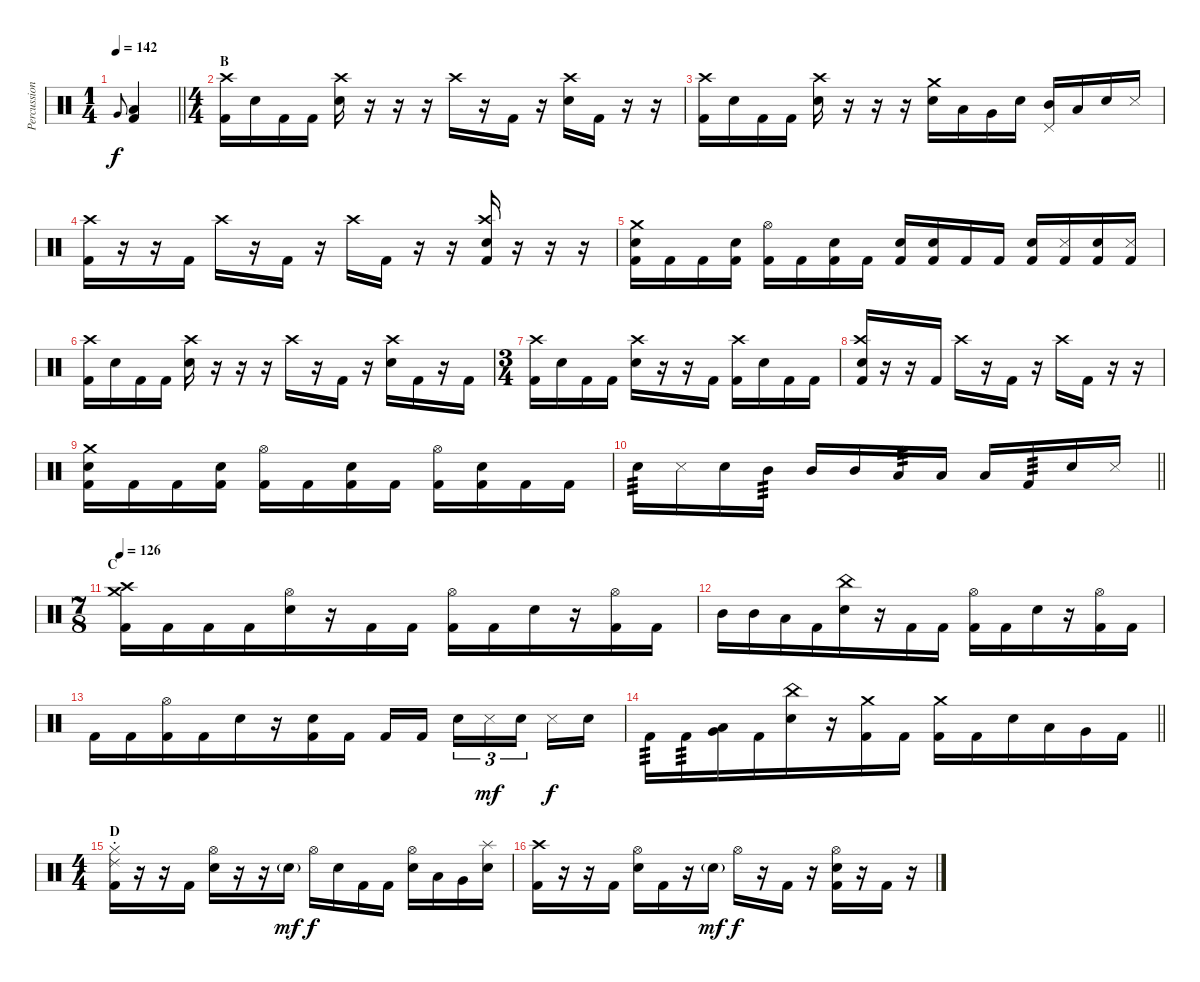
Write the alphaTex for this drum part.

\track ("Percussion" "Percussion") {instrument percussion}
\staff {score}
\articulation defaults
\ts (1 4)
\tempo 142
\clef neutral
\barLineRight lightlight
\ks c "Very Low Tom (hit)".8{gr onbeat dy f}
("Low Floor Tom (hit)" "Kick (hit) 2").4 |
\ts (4 4)
\section ("" "B")
("Crash high (hit)" "Kick (hit) 2").16 "Snare (hit) 2".16 "Kick (hit) 2".16 "Kick (hit) 2".16 ("Crash high (hit)" "Snare (hit) 2").16 r.16 r.16 r.16 "Crash high (hit)".16 r.16 "Kick (hit) 2".16 r.16 ("Crash high (hit)" "Snare (hit) 2").16 "Kick (hit) 2".16 r.16 r.16 |
("Crash high (hit)" "Kick (hit) 2").16 "Snare (hit) 2".16 "Kick (hit) 2".16 "Kick (hit) 2".16 ("Crash high (hit)" "Snare (hit) 2").16 r.16 r.16 r.16 ("Crash medium (hit)" "Snare (hit) 2").16 "Low Tom (hit)".16 "Very Low Tom (hit)".16 "Snare (hit) 2".16 ("Pedal Hi-Hat (hit)" "Mid Tom (hit)").16 "Low Tom (hit)".16 "Snare (hit) 2".16 "Metronome (hit)".16 |
("Crash high (hit)" "Kick (hit) 2").16 r.16 r.16 "Kick (hit) 2".16 "Crash high (hit)".16 r.16 "Kick (hit) 2".16 r.16 "Crash high (hit)".16 "Kick (hit) 2".16 r.16 r.16 ("Crash high (hit)" "Snare (hit) 2" "Kick (hit) 2").16 r.16 r.16 r.16 |
("Crash medium (hit)" "Snare (hit) 2" "Kick (hit) 2").16 "Kick (hit) 2".16 "Kick (hit) 2".16 ("Snare (hit) 2" "Kick (hit) 2").16 ("Hi-Hat (open)" "Kick (hit) 2").16 "Kick (hit) 2".16 ("Snare (hit) 2" "Kick (hit) 2").16 "Kick (hit) 2".16 ("Snare (hit)" "Kick (hit) 2").16 ("Snare (hit) 2" "Kick (hit) 2").16 "Kick (hit) 2".16 "Kick (hit) 2".16 ("Snare (hit) 2" "Kick (hit) 2").16 ("Metronome (hit)" "Kick (hit) 2").16 ("Snare (hit) 2" "Kick (hit) 2").16 ("Metronome (hit)" "Kick (hit) 2").16 |
("Crash high (hit)" "Kick (hit) 2").16 "Snare (hit) 2".16 "Kick (hit) 2".16 "Kick (hit) 2".16 ("Crash high (hit)" "Snare (hit) 2").16 r.16 r.16 r.16 "Crash high (hit)".16 r.16 "Kick (hit) 2".16 r.16 ("Crash high (hit)" "Snare (hit) 2").16 "Kick (hit) 2".16 r.16 "Kick (hit) 2".16 |
\ts (3 4)
("Crash high (hit)" "Kick (hit) 2").16 "Snare (hit) 2".16 "Kick (hit) 2".16 "Kick (hit) 2".16 ("Crash high (hit)" "Snare (hit) 2").16 r.16 r.16 "Kick (hit) 2".16 ("Crash high (hit)" "Kick (hit) 2").16 "Snare (hit) 2".16 "Kick (hit) 2".16 "Kick (hit) 2".16 |
("Crash high (hit)" "Snare (hit) 2" "Kick (hit) 2").16 r.16 r.16 "Kick (hit) 2".16 "Crash high (hit)".16 r.16 "Kick (hit) 2".16 r.16 "Crash high (hit)".16 "Kick (hit) 2".16 r.16 r.16 |
("Crash medium (hit)" "Snare (hit) 2" "Kick (hit) 2").16 "Kick (hit) 2".16 "Kick (hit) 2".16 ("Snare (hit) 2" "Kick (hit) 2").16 ("Hi-Hat (open)" "Kick (hit) 2").16 "Kick (hit) 2".16 ("Snare (hit) 2" "Kick (hit) 2").16 "Kick (hit) 2".16 ("Hi-Hat (open)" "Kick (hit) 2").16 ("Snare (hit) 2" "Kick (hit) 2").16 "Kick (hit) 2".16 "Kick (hit) 2".16 |
\barLineRight lightlight "Snare (hit) 2".16{tp 3} "Metronome (hit)".16 "Snare (hit) 2".16 "Mid Tom (hit)".16{tp 3} "Mid Tom (hit)".16 "Mid Tom (hit)".16 "Low Tom (hit)".16{tp 3} "Low Tom (hit)".16 "Low Tom (hit)".16 "Kick (hit) 2".16{tp 3} "Snare (hit) 2".16 "Metronome (hit)".16
|
\ts (7 8)
\section ("" "C")
\tempo 126
("Crash medium (hit)" "Crash high (hit)" "Kick (hit) 2").16 "Kick (hit) 2".16 "Kick (hit) 2".16 "Kick (hit) 2".16 ("Hi-Hat (open)" "Snare (hit) 2").16 r.16 "Kick (hit) 2".16 "Kick (hit) 2".16 ("Hi-Hat (open)" "Kick (hit) 2").16 "Kick (hit) 2".16 "Snare (hit) 2".16 r.16 ("Hi-Hat (open)" "Kick (hit) 2").16 "Kick (hit) 2".16 |
"Mid Tom (hit)".16 "Mid Tom (hit)".16 "Low Tom (hit)".16 "Kick (hit) 2".16 ("China (hit)" "Snare (hit) 2").16 r.16 "Kick (hit) 2".16 "Kick (hit) 2".16 ("Hi-Hat (open)" "Kick (hit) 2").16 "Kick (hit) 2".16 "Snare (hit) 2".16 r.16 ("Hi-Hat (open)" "Kick (hit) 2").16 "Kick (hit) 2".16 |
"Kick (hit) 2".16 "Kick (hit) 2".16 ("Hi-Hat (open)" "Kick (hit) 2").16 "Kick (hit) 2".16 "Snare (hit) 2".16 r.16 ("Snare (hit)" "Kick (hit) 2").16 "Kick (hit) 2".16 "Kick (hit) 2".16 "Kick (hit) 2".16 "Snare (hit) 2".16{tu (3 2)} "Metronome (hit)".16{tu (3 2) dy mf} "Snare (hit) 2".16{tu (3 2)} "Metronome (hit)".16{dy f} "Snare (hit) 2".16 |
\barLineRight lightlight "Kick (hit) 2".16{tp 3} "Kick (hit) 2".16{tp 3}
("Low Tom (hit)" "Very Low Tom (hit)").16{bu 60} "Kick (hit) 2".16 ("China (hit)" "Snare (hit) 2").16 r.16 ("Crash medium (hit)" "Kick (hit) 2").16 "Kick (hit) 2".16 ("Crash medium (hit)" "Kick (hit) 2").16 "Kick (hit) 2".16 "Snare (hit) 2".16 "Low Tom (hit)".16 "Very Low Tom (hit)".16 "Kick (hit) 2".16 |
\ts (4 4)
\section ("" "D")
("Ride (choke) 2" "Hi-Hat (closed)" "Kick (hit) 2").16 r.16 r.16 "Kick (hit) 2".16 ("Hi-Hat (open)" "Snare (hit) 2").16 r.16 r.16 "Snare (hit) 2"{g}.16{dy mf} "Hi-Hat (open)".16{dy f} "Snare (hit) 2".16 "Kick (hit) 2".16 "Kick (hit) 2".16 ("Hi-Hat (open)" "Snare (hit) 2").16 "Low Tom (hit)".16 "Very Low Tom (hit)".16 ("Splash (hit)" "Snare (hit) 2").16 |
("Crash high (hit)" "Kick (hit) 2").16 r.16 r.16 "Kick (hit) 2".16 ("Hi-Hat (open)" "Snare (hit) 2").16 "Kick (hit) 2".16 r.16 "Snare (hit) 2"{g}.16{dy mf} "Hi-Hat (open)".16{dy f} r.16 "Kick (hit) 2".16 r.16 ("Hi-Hat (open)" "Snare (hit) 2" "Kick (hit) 2").16 r.16 "Kick (hit) 2".16 r.16
